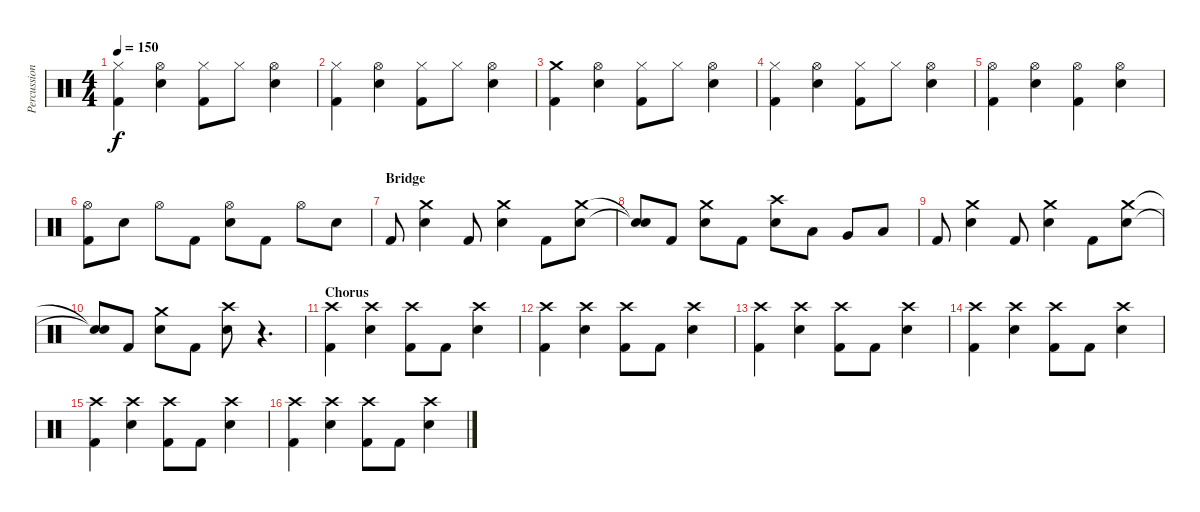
\track ("Percussion" "Percussion") {instrument percussion}
\staff {score}
\articulation defaults
\ts (4 4)
\tempo 150
\clef neutral
\ks c
("Hi-Hat (closed)" "Kick (hit) 2").4{dy f} ("Hi-Hat (open)" "Electric Snare (hit)").4 ("Hi-Hat (closed)" "Kick (hit) 2").8 "Hi-Hat (closed)".8 ("Hi-Hat (open)" "Electric Snare (hit)").4 |
("Hi-Hat (closed)" "Kick (hit) 2").4 ("Hi-Hat (open)" "Electric Snare (hit)").4 ("Hi-Hat (closed)" "Kick (hit) 2").8 "Hi-Hat (closed)".8 ("Hi-Hat (open)" "Electric Snare (hit)").4 |
("Crash medium (hit)" "Kick (hit) 2").4 ("Hi-Hat (open)" "Electric Snare (hit)").4 ("Hi-Hat (closed)" "Kick (hit) 2").8 "Hi-Hat (closed)".8 ("Hi-Hat (open)" "Electric Snare (hit)").4 |
("Hi-Hat (closed)" "Kick (hit) 2").4 ("Hi-Hat (open)" "Electric Snare (hit)").4 ("Hi-Hat (closed)" "Kick (hit) 2").8 "Hi-Hat (closed)".8 ("Hi-Hat (open)" "Electric Snare (hit)").4 |
("Hi-Hat (open)" "Kick (hit) 2").4 ("Hi-Hat (open)" "Electric Snare (hit)").4 ("Hi-Hat (open)" "Kick (hit) 2").4 ("Hi-Hat (open)" "Electric Snare (hit)").4 |
("Hi-Hat (open)" "Kick (hit) 2").8 "Electric Snare (hit)".8 "Hi-Hat (open)".8 "Kick (hit) 2".8 ("Hi-Hat (open)" "Electric Snare (hit)").8 "Kick (hit) 2".8 "Hi-Hat (open)".8 "Electric Snare (hit)".8 |
\section ("" "Bridge")
"Kick (hit) 2".8 ("Crash medium (hit)" "Electric Snare (hit)").4 "Kick (hit) 2".8 ("Crash medium (hit)" "Electric Snare (hit)").4 "Kick (hit) 2".8 ("Crash medium (hit)" "Electric Snare (hit)").8 |
("Snare (hit)"{t} "Snare (hit)"{t}).8 "Kick (hit) 2".8 ("Crash medium (hit)" "Electric Snare (hit)").8 "Kick (hit) 2".8 ("Crash high (hit)" "Electric Snare (hit)").8 "Low Tom (hit)".8 "Very Low Tom (hit)".8 "Low Floor Tom (hit)".8 |
"Kick (hit) 2".8 ("Crash medium (hit)" "Electric Snare (hit)").4 "Kick (hit) 2".8 ("Crash medium (hit)" "Electric Snare (hit)").4 "Kick (hit) 2".8 ("Crash medium (hit)" "Electric Snare (hit)").8 |
("Snare (hit)"{t} "Snare (hit)"{t}).8 "Kick (hit) 2".8 ("Crash medium (hit)" "Electric Snare (hit)").8 "Kick (hit) 2".8 ("Crash high (hit)" "Electric Snare (hit)").8 r.4{d} |
\section ("" "Chorus")
("Crash high (hit)" "Kick (hit) 2").4 ("Crash high (hit)" "Electric Snare (hit)").4 ("Crash high (hit)" "Kick (hit) 2").8 "Kick (hit) 2".8 ("Crash high (hit)" "Electric Snare (hit)").4 |
("Crash high (hit)" "Kick (hit) 2").4 ("Crash high (hit)" "Electric Snare (hit)").4 ("Crash high (hit)" "Kick (hit) 2").8 "Kick (hit) 2".8 ("Crash high (hit)" "Electric Snare (hit)").4 |
("Crash high (hit)" "Kick (hit) 2").4 ("Crash high (hit)" "Electric Snare (hit)").4 ("Crash high (hit)" "Kick (hit) 2").8 "Kick (hit) 2".8 ("Crash high (hit)" "Electric Snare (hit)").4 |
("Crash high (hit)" "Kick (hit) 2").4 ("Crash high (hit)" "Electric Snare (hit)").4 ("Crash high (hit)" "Kick (hit) 2").8 "Kick (hit) 2".8 ("Crash high (hit)" "Electric Snare (hit)").4 |
("Crash high (hit)" "Kick (hit) 2").4 ("Crash high (hit)" "Electric Snare (hit)").4 ("Crash high (hit)" "Kick (hit) 2").8 "Kick (hit) 2".8 ("Crash high (hit)" "Electric Snare (hit)").4 |
("Crash high (hit)" "Kick (hit) 2").4 ("Crash high (hit)" "Electric Snare (hit)").4 ("Crash high (hit)" "Kick (hit) 2").8 "Kick (hit) 2".8 ("Crash high (hit)" "Electric Snare (hit)").4
